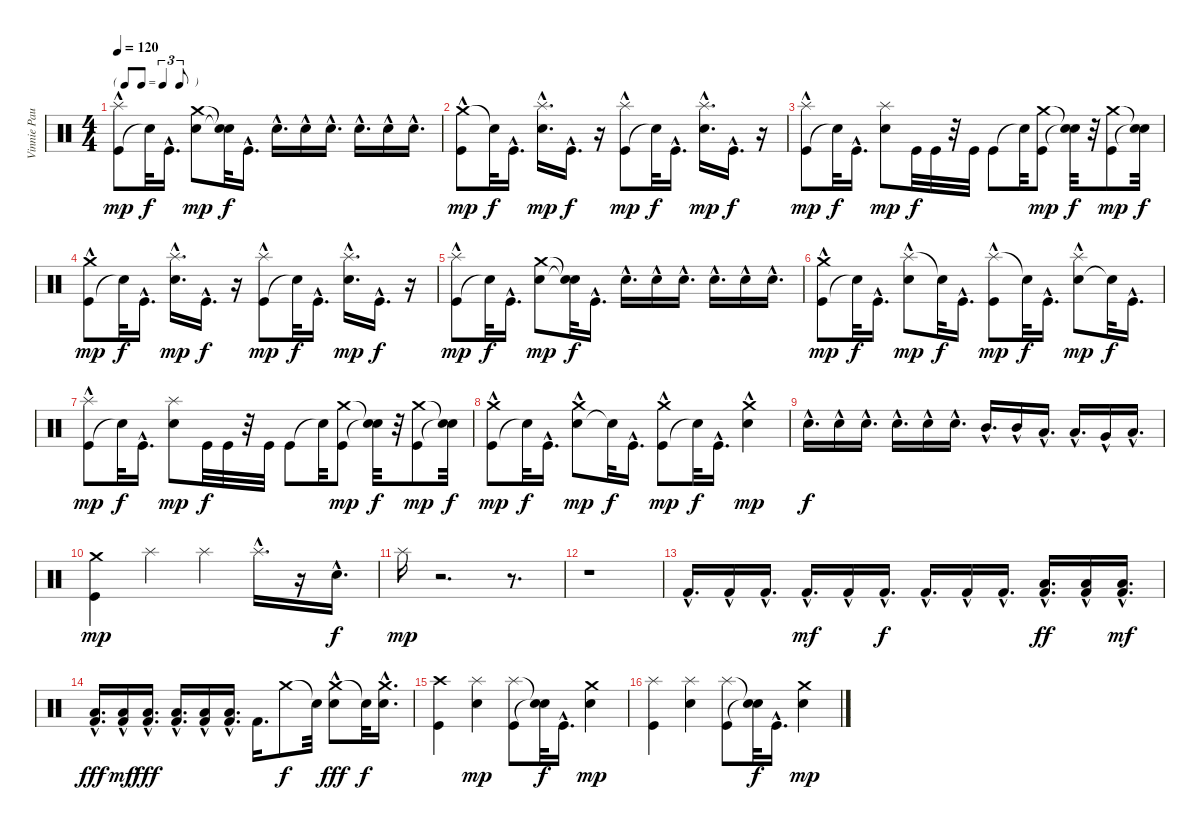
\track ("Vinnie Paul (Drums)" "Vinnie Pau") {instrument percussion}
\staff {score}
\articulation defaults
\ts (4 4)
\tf triplet8th
\tempo 120
\clef neutral
\ks c
("Kick (hit)"{hac} "Splash (hit)").8{dy mp} "Snare (hit)"{t}.32{dy f} "Kick (hit)"{hac}.16{d} ("Electric Snare (hit)" "Crash medium (hit)").8{dy mp} ("Snare (hit)"{t} "Snare (hit)"{t}).32{dy f} "Kick (hit)"{hac}.16{d} "Electric Snare (hit)"{hac}.16{d} "Electric Snare (hit)"{hac}.16 "Electric Snare (hit)"{hac}.16{d} "Electric Snare (hit)"{hac}.16{d} "Electric Snare (hit)"{hac}.16 "Electric Snare (hit)"{hac}.16{d} |
("Crash medium (hit)" "Kick (hit)"{hac}).8{dy mp} "Snare (hit)"{t}.32{dy f} "Kick (hit)"{hac}.16{d} ("Splash (hit)" "Electric Snare (hit)"{hac}).16{d dy mp} "Kick (hit)"{hac}.16{d dy f} r.16 ("Kick (hit)"{hac} "Splash (hit)").8{dy mp} "Snare (hit)"{t}.32{dy f} "Kick (hit)"{hac}.16{d} ("Electric Snare (hit)"{hac} "Splash (hit)").16{d dy mp} "Kick (hit)"{hac}.16{d dy f} r.16 |
("Kick (hit)"{hac} "Splash (hit)").8{dy mp} "Snare (hit)"{t}.32{dy f} "Kick (hit)"{hac}.16{d} ("Electric Snare (hit)" "Splash (hit)").8{dy mp} "Kick (hit)".32{dy f} "Kick (hit)".32 r.32 "Kick (hit)".32 "Kick (hit)".8 "Snare (hit)"{t}.32 ("Kick (hit)" "Crash medium (hit)").8{dy mp} ("Snare (hit)"{t} "Snare (hit)"{t}).32{dy f} r.32 ("Kick (hit)" "Crash medium (hit)").8{dy mp} ("Snare (hit)"{t} "Snare (hit)"{t}).32{dy f} |
("Kick (hit)"{hac} "Crash medium (hit)").8{dy mp} "Snare (hit)"{t}.32{dy f} "Kick (hit)"{hac}.16{d} ("Electric Snare (hit)"{hac} "Splash (hit)").16{d dy mp} "Kick (hit)"{hac}.16{d dy f} r.16 ("Kick (hit)"{hac} "Splash (hit)").8{dy mp} "Snare (hit)"{t}.32{dy f} "Kick (hit)"{hac}.16{d} ("Electric Snare (hit)"{hac} "Splash (hit)").16{d dy mp} "Kick (hit)"{hac}.16{d dy f} r.16 |
("Kick (hit)"{hac} "Splash (hit)").8{dy mp} "Snare (hit)"{t}.32{dy f} "Kick (hit)"{hac}.16{d} ("Crash medium (hit)" "Electric Snare (hit)").8{dy mp} ("Snare (hit)"{t} "Snare (hit)"{t}).32{dy f} "Kick (hit)"{hac}.16{d} "Electric Snare (hit)"{hac}.16{d} "Electric Snare (hit)"{hac}.16 "Electric Snare (hit)"{hac}.16{d} "Electric Snare (hit)"{hac}.16{d} "Electric Snare (hit)"{hac}.16 "Electric Snare (hit)"{hac}.16{d} |
("Kick (hit)"{hac} "Crash medium (hit)").8{dy mp} "Snare (hit)"{t}.32{dy f} "Kick (hit)"{hac}.16{d} ("Splash (hit)" "Electric Snare (hit)"{hac}).8{dy mp} "Snare (hit)"{t}.32{dy f} "Kick (hit)"{hac}.16{d} ("Splash (hit)" "Kick (hit)"{hac}).8{dy mp} "Snare (hit)"{t}.32{dy f} "Kick (hit)"{hac}.16{d} ("Electric Snare (hit)"{hac} "Splash (hit)").8{dy mp} "Snare (hit)"{t}.32{dy f} "Kick (hit)"{hac}.16{d} |
("Kick (hit)"{hac} "Splash (hit)").8{dy mp} "Snare (hit)"{t}.32{dy f} "Kick (hit)"{hac}.16{d} ("Electric Snare (hit)" "Splash (hit)").8{dy mp} "Kick (hit)".32{dy f} "Kick (hit)".32 r.32 "Kick (hit)".32 "Kick (hit)".8 "Snare (hit)"{t}.32 ("Kick (hit)" "Crash medium (hit)").8{dy mp} ("Snare (hit)"{t} "Snare (hit)"{t}).32{dy f} r.32 ("Kick (hit)" "Crash medium (hit)").8{dy mp} ("Snare (hit)"{t} "Snare (hit)"{t}).32{dy f} |
("Kick (hit)"{hac} "Crash medium (hit)").8{dy mp} "Snare (hit)"{t}.32{dy f} "Kick (hit)"{hac}.16{d} ("Electric Snare (hit)"{hac} "Crash medium (hit)").8{dy mp} "Snare (hit)"{t}.32{dy f} "Kick (hit)"{hac}.16{d} ("Kick (hit)"{hac} "Crash medium (hit)").8{dy mp} "Snare (hit)"{t}.32{dy f} "Kick (hit)"{hac}.16{d} ("Electric Snare (hit)"{hac} "Crash medium (hit)").4{dy mp} |
"Electric Snare (hit)"{hac}.16{d dy f} "Electric Snare (hit)"{hac}.16 "Electric Snare (hit)"{hac}.16{d} "Electric Snare (hit)"{hac}.16{d} "Electric Snare (hit)"{hac}.16 "Electric Snare (hit)"{hac}.16{d} "Mid Tom (hit)"{hac}.16{d} "Mid Tom (hit)"{hac}.16 "Low Tom (hit)"{hac}.16{d} "Low Tom (hit)"{hac}.16{d} "Very Low Tom (hit)"{hac}.16 "Low Floor Tom (hit)"{hac}.16{d} |
("Kick (hit)" "Crash medium (hit)").4{dy mp} "Splash (hit)".4 "Splash (hit)".4 "Splash (hit)"{hac}.16{d} r.16 "Electric Snare (hit)"{hac}.16{d dy f} |
"Splash (hit)".16{dy mp} r.2{d} r.8{d} |
r.1 |
"Kick (hit) 2"{hac}.16{d} "Kick (hit) 2"{hac}.16 "Kick (hit) 2"{hac}.16{d} "Kick (hit) 2"{hac}.16{d dy mf} "Kick (hit) 2"{hac}.16 "Kick (hit) 2"{hac}.16{d dy f} "Kick (hit) 2"{hac}.16{d} "Kick (hit) 2"{hac}.16 "Kick (hit) 2"{hac}.16{d} ("Low Floor Tom (hit)"{hac} "Kick (hit) 2"{hac}).16{d dy ff} ("Low Floor Tom (hit)"{hac} "Kick (hit) 2"{hac}).16 ("Kick (hit) 2"{hac} "Low Floor Tom (hit)"{hac}).16{d dy mf} |
("Low Floor Tom (hit)"{hac} "Kick (hit) 2"{hac}).16{d dy fff} ("Kick (hit) 2"{hac} "Low Floor Tom (hit)"{hac}).16{dy mf} ("Low Floor Tom (hit)"{hac} "Kick (hit) 2"{hac}).16{d dy fff} ("Low Floor Tom (hit)"{hac} "Kick (hit) 2"{hac}).16{d} ("Low Floor Tom (hit)"{hac} "Kick (hit) 2"{hac}).16 ("Low Floor Tom (hit)"{hac} "Kick (hit) 2"{hac}).16{d} "Kick (hit) 2".16{d} "Crash medium (hit)".8{dy f} "Snare (hit)"{t}.32 ("Crash medium (hit)"{hac} "Snare (hit) 2").8{dy fff} "Snare (hit)"{t}.32{dy f} ("Snare (hit) 2"{hac} "Crash medium (hit)"{hac}).16{d} |
("Kick (hit)" "Crash high (hit)").4 ("Electric Snare (hit)" "Splash (hit)").4{dy mp} ("Kick (hit)" "Splash (hit)").8 ("Snare (hit)"{t} "Snare (hit)"{t}).32{dy f} "Kick (hit)"{hac}.16{d} ("Electric Snare (hit)" "Crash medium (hit)").4{dy mp} |
("Kick (hit)" "Splash (hit)").4 ("Electric Snare (hit)" "Splash (hit)").4 ("Kick (hit)" "Splash (hit)").8 ("Snare (hit)"{t} "Snare (hit)"{t}).32{dy f} "Kick (hit)"{hac}.16{d} ("Electric Snare (hit)" "Crash medium (hit)").4{dy mp}
